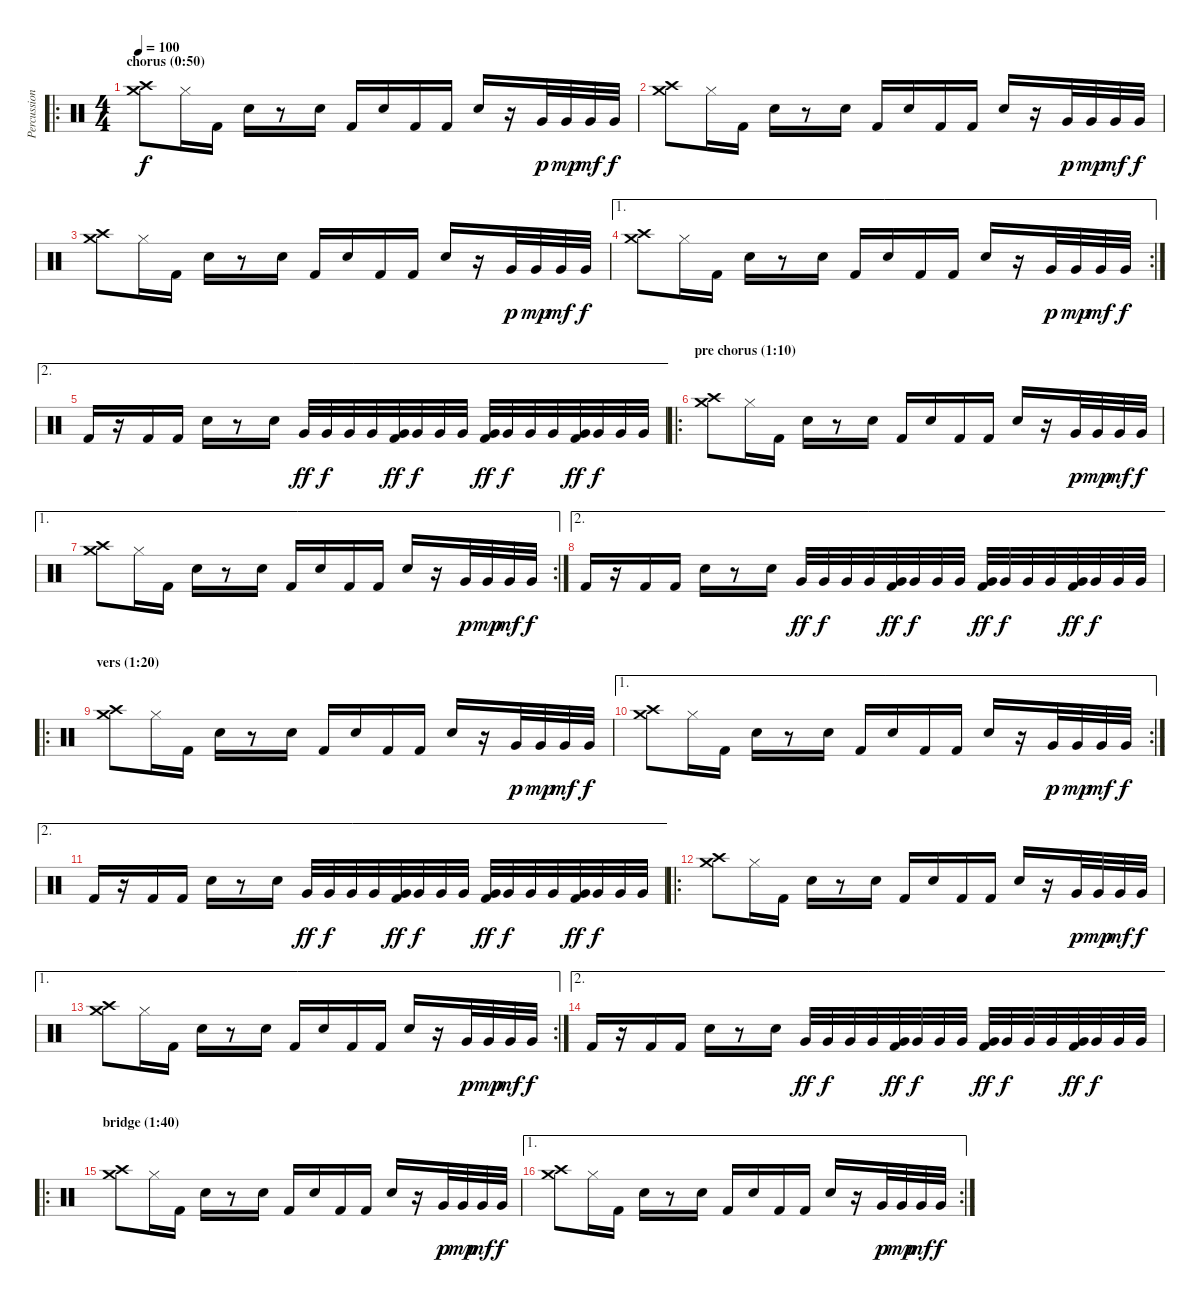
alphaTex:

\track ("Percussion (Matt)" "Percussion") {instrument percussion}
\staff {score}
\articulation defaults
\ro
\ts (4 4)
\section ("" "chorus (0:50)")
\tempo 100
\clef neutral
\ks c
("Crash high (hit)" "Crash medium (hit)").8{dy f} "Hi-Hat (closed)".16 "Kick (hit) 2".16 "Snare (hit) 2".16 r.8 "Snare (hit) 2".16 "Kick (hit) 2".16 "Snare (hit) 2".16 "Kick (hit) 2".16 "Kick (hit) 2".16 "Snare (hit) 2".16 r.16 "Very Low Tom (hit)".32{dy p} "Very Low Tom (hit)".32{dy mp} "Very Low Tom (hit)".32{dy mf} "Very Low Tom (hit)".32{dy f} |
("Crash high (hit)" "Crash medium (hit)").8 "Hi-Hat (closed)".16 "Kick (hit) 2".16 "Snare (hit) 2".16 r.8 "Snare (hit) 2".16 "Kick (hit) 2".16 "Snare (hit) 2".16 "Kick (hit) 2".16 "Kick (hit) 2".16 "Snare (hit) 2".16 r.16 "Very Low Tom (hit)".32{dy p} "Very Low Tom (hit)".32{dy mp} "Very Low Tom (hit)".32{dy mf} "Very Low Tom (hit)".32{dy f} |
("Crash high (hit)" "Crash medium (hit)").8 "Hi-Hat (closed)".16 "Kick (hit) 2".16 "Snare (hit) 2".16 r.8 "Snare (hit) 2".16 "Kick (hit) 2".16 "Snare (hit) 2".16 "Kick (hit) 2".16 "Kick (hit) 2".16 "Snare (hit) 2".16 r.16 "Very Low Tom (hit)".32{dy p} "Very Low Tom (hit)".32{dy mp} "Very Low Tom (hit)".32{dy mf} "Very Low Tom (hit)".32{dy f} |
\ae 1
\rc 2
("Crash high (hit)" "Crash medium (hit)").8 "Hi-Hat (closed)".16 "Kick (hit) 2".16 "Snare (hit) 2".16 r.8 "Snare (hit) 2".16 "Kick (hit) 2".16 "Snare (hit) 2".16 "Kick (hit) 2".16 "Kick (hit) 2".16 "Snare (hit) 2".16 r.16 "Very Low Tom (hit)".32{dy p} "Very Low Tom (hit)".32{dy mp} "Very Low Tom (hit)".32{dy mf} "Very Low Tom (hit)".32{dy f} |
\ae 2 "Kick (hit) 2".16
r.16 "Kick (hit) 2".16 "Kick (hit) 2".16 "Snare (hit) 2".16 r.8 "Snare (hit) 2".16 "Very Low Tom (hit)".32{dy ff} "Very Low Tom (hit)".32{dy f} "Very Low Tom (hit)".32 "Very Low Tom (hit)".32 ("Very Low Tom (hit)" "Kick (hit) 2").32{dy ff} "Very Low Tom (hit)".32{dy f} "Very Low Tom (hit)".32 "Very Low Tom (hit)".32 ("Very Low Tom (hit)" "Kick (hit) 2").32{dy ff} "Very Low Tom (hit)".32{dy f} "Very Low Tom (hit)".32 "Very Low Tom (hit)".32 ("Very Low Tom (hit)" "Kick (hit) 2").32{dy ff} "Very Low Tom (hit)".32{dy f} "Very Low Tom (hit)".32 "Very Low Tom (hit)".32 |
\ro
\section ("" "pre chorus (1:10)")
("Crash high (hit)" "Crash medium (hit)").8 "Hi-Hat (closed)".16 "Kick (hit) 2".16 "Snare (hit) 2".16 r.8 "Snare (hit) 2".16 "Kick (hit) 2".16 "Snare (hit) 2".16 "Kick (hit) 2".16 "Kick (hit) 2".16 "Snare (hit) 2".16 r.16 "Very Low Tom (hit)".32{dy p} "Very Low Tom (hit)".32{dy mp} "Very Low Tom (hit)".32{dy mf} "Very Low Tom (hit)".32{dy f} |
\ae 1
\rc 2
("Crash high (hit)" "Crash medium (hit)").8 "Hi-Hat (closed)".16 "Kick (hit) 2".16 "Snare (hit) 2".16 r.8 "Snare (hit) 2".16 "Kick (hit) 2".16 "Snare (hit) 2".16 "Kick (hit) 2".16 "Kick (hit) 2".16 "Snare (hit) 2".16 r.16 "Very Low Tom (hit)".32{dy p} "Very Low Tom (hit)".32{dy mp} "Very Low Tom (hit)".32{dy mf} "Very Low Tom (hit)".32{dy f} |
\ae 2 "Kick (hit) 2".16
r.16 "Kick (hit) 2".16 "Kick (hit) 2".16 "Snare (hit) 2".16 r.8 "Snare (hit) 2".16 "Very Low Tom (hit)".32{dy ff} "Very Low Tom (hit)".32{dy f} "Very Low Tom (hit)".32 "Very Low Tom (hit)".32 ("Very Low Tom (hit)" "Kick (hit) 2").32{dy ff} "Very Low Tom (hit)".32{dy f} "Very Low Tom (hit)".32 "Very Low Tom (hit)".32 ("Very Low Tom (hit)" "Kick (hit) 2").32{dy ff} "Very Low Tom (hit)".32{dy f} "Very Low Tom (hit)".32 "Very Low Tom (hit)".32 ("Very Low Tom (hit)" "Kick (hit) 2").32{dy ff} "Very Low Tom (hit)".32{dy f} "Very Low Tom (hit)".32 "Very Low Tom (hit)".32 |
\ro
\section ("" "vers (1:20)")
("Crash high (hit)" "Crash medium (hit)").8 "Hi-Hat (closed)".16 "Kick (hit) 2".16 "Snare (hit) 2".16 r.8 "Snare (hit) 2".16 "Kick (hit) 2".16 "Snare (hit) 2".16 "Kick (hit) 2".16 "Kick (hit) 2".16 "Snare (hit) 2".16 r.16 "Very Low Tom (hit)".32{dy p} "Very Low Tom (hit)".32{dy mp} "Very Low Tom (hit)".32{dy mf} "Very Low Tom (hit)".32{dy f} |
\ae 1
\rc 2
("Crash high (hit)" "Crash medium (hit)").8 "Hi-Hat (closed)".16 "Kick (hit) 2".16 "Snare (hit) 2".16 r.8 "Snare (hit) 2".16 "Kick (hit) 2".16 "Snare (hit) 2".16 "Kick (hit) 2".16 "Kick (hit) 2".16 "Snare (hit) 2".16 r.16 "Very Low Tom (hit)".32{dy p} "Very Low Tom (hit)".32{dy mp} "Very Low Tom (hit)".32{dy mf} "Very Low Tom (hit)".32{dy f} |
\ae 2 "Kick (hit) 2".16
r.16 "Kick (hit) 2".16 "Kick (hit) 2".16 "Snare (hit) 2".16 r.8 "Snare (hit) 2".16 "Very Low Tom (hit)".32{dy ff} "Very Low Tom (hit)".32{dy f} "Very Low Tom (hit)".32 "Very Low Tom (hit)".32 ("Very Low Tom (hit)" "Kick (hit) 2").32{dy ff} "Very Low Tom (hit)".32{dy f} "Very Low Tom (hit)".32 "Very Low Tom (hit)".32 ("Very Low Tom (hit)" "Kick (hit) 2").32{dy ff} "Very Low Tom (hit)".32{dy f} "Very Low Tom (hit)".32 "Very Low Tom (hit)".32 ("Very Low Tom (hit)" "Kick (hit) 2").32{dy ff} "Very Low Tom (hit)".32{dy f} "Very Low Tom (hit)".32 "Very Low Tom (hit)".32 |
\ro
("Crash high (hit)" "Crash medium (hit)").8 "Hi-Hat (closed)".16 "Kick (hit) 2".16 "Snare (hit) 2".16 r.8 "Snare (hit) 2".16 "Kick (hit) 2".16 "Snare (hit) 2".16 "Kick (hit) 2".16 "Kick (hit) 2".16 "Snare (hit) 2".16 r.16 "Very Low Tom (hit)".32{dy p} "Very Low Tom (hit)".32{dy mp} "Very Low Tom (hit)".32{dy mf} "Very Low Tom (hit)".32{dy f} |
\ae 1
\rc 2
("Crash high (hit)" "Crash medium (hit)").8 "Hi-Hat (closed)".16 "Kick (hit) 2".16 "Snare (hit) 2".16 r.8 "Snare (hit) 2".16 "Kick (hit) 2".16 "Snare (hit) 2".16 "Kick (hit) 2".16 "Kick (hit) 2".16 "Snare (hit) 2".16 r.16 "Very Low Tom (hit)".32{dy p} "Very Low Tom (hit)".32{dy mp} "Very Low Tom (hit)".32{dy mf} "Very Low Tom (hit)".32{dy f} |
\ae 2 "Kick (hit) 2".16
r.16 "Kick (hit) 2".16 "Kick (hit) 2".16 "Snare (hit) 2".16 r.8 "Snare (hit) 2".16 "Very Low Tom (hit)".32{dy ff} "Very Low Tom (hit)".32{dy f} "Very Low Tom (hit)".32 "Very Low Tom (hit)".32 ("Very Low Tom (hit)" "Kick (hit) 2").32{dy ff} "Very Low Tom (hit)".32{dy f} "Very Low Tom (hit)".32 "Very Low Tom (hit)".32 ("Very Low Tom (hit)" "Kick (hit) 2").32{dy ff} "Very Low Tom (hit)".32{dy f} "Very Low Tom (hit)".32 "Very Low Tom (hit)".32 ("Very Low Tom (hit)" "Kick (hit) 2").32{dy ff} "Very Low Tom (hit)".32{dy f} "Very Low Tom (hit)".32 "Very Low Tom (hit)".32 |
\ro
\section ("" "bridge (1:40)")
("Crash high (hit)" "Crash medium (hit)").8 "Hi-Hat (closed)".16 "Kick (hit) 2".16 "Snare (hit) 2".16 r.8 "Snare (hit) 2".16 "Kick (hit) 2".16 "Snare (hit) 2".16 "Kick (hit) 2".16 "Kick (hit) 2".16 "Snare (hit) 2".16 r.16 "Very Low Tom (hit)".32{dy p} "Very Low Tom (hit)".32{dy mp} "Very Low Tom (hit)".32{dy mf} "Very Low Tom (hit)".32{dy f} |
\ae 1
\rc 2
("Crash high (hit)" "Crash medium (hit)").8 "Hi-Hat (closed)".16 "Kick (hit) 2".16 "Snare (hit) 2".16 r.8 "Snare (hit) 2".16 "Kick (hit) 2".16 "Snare (hit) 2".16 "Kick (hit) 2".16 "Kick (hit) 2".16 "Snare (hit) 2".16 r.16 "Very Low Tom (hit)".32{dy p} "Very Low Tom (hit)".32{dy mp} "Very Low Tom (hit)".32{dy mf} "Very Low Tom (hit)".32{dy f}
